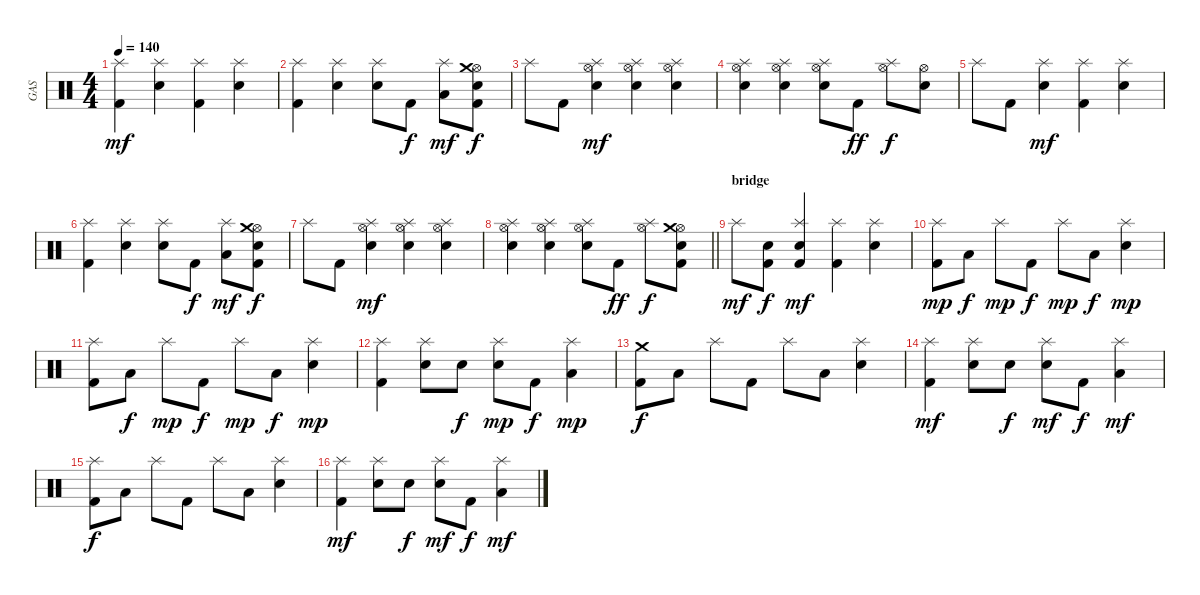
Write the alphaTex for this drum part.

\track ("GAS" "GAS") {instrument percussion}
\staff {score}
\articulation defaults
\ts (4 4)
\tempo 140
\clef neutral
\ks c
("Kick (hit) 2" "Splash (hit)").4{dy mf} ("Electric Snare (hit)" "Splash (hit)").4 ("Kick (hit) 2" "Splash (hit)").4 ("Electric Snare (hit)" "Splash (hit)").4 |
("Kick (hit) 2" "Splash (hit)").4 ("Electric Snare (hit)" "Splash (hit)").4 ("Electric Snare (hit)" "Splash (hit)").8 "Kick (hit) 2".8{dy f} ("Low Tom (hit)" "Splash (hit)").8{dy mf} ("Kick (hit) 2" "Electric Snare (hit)" "Hi-Hat (open)" "Crash medium (hit)").8{dy f} |
"Splash (hit)".8 "Kick (hit) 2".8 ("Electric Snare (hit)" "Hi-Hat (open)" "Splash (hit)").4{dy mf} ("Electric Snare (hit)" "Hi-Hat (open)" "Splash (hit)").4 ("Electric Snare (hit)" "Hi-Hat (open)" "Splash (hit)").4 |
("Electric Snare (hit)" "Hi-Hat (open)" "Splash (hit)").4 ("Electric Snare (hit)" "Hi-Hat (open)" "Splash (hit)").4 ("Electric Snare (hit)" "Hi-Hat (open)" "Splash (hit)").8 "Kick (hit) 2".8{dy ff} ("Hi-Hat (open)" "Splash (hit)").8{dy f} ("Electric Snare (hit)" "Hi-Hat (open)").8 |
"Splash (hit)".8 "Kick (hit) 2".8 ("Electric Snare (hit)" "Splash (hit)").4{dy mf} ("Kick (hit) 2" "Splash (hit)").4 ("Electric Snare (hit)" "Splash (hit)").4 |
("Kick (hit) 2" "Splash (hit)").4 ("Electric Snare (hit)" "Splash (hit)").4 ("Electric Snare (hit)" "Splash (hit)").8 "Kick (hit) 2".8{dy f} ("Low Tom (hit)" "Splash (hit)").8{dy mf} ("Kick (hit) 2" "Electric Snare (hit)" "Hi-Hat (open)" "Crash medium (hit)").8{dy f} |
"Splash (hit)".8 "Kick (hit) 2".8 ("Electric Snare (hit)" "Hi-Hat (open)" "Splash (hit)").4{dy mf} ("Electric Snare (hit)" "Hi-Hat (open)" "Splash (hit)").4 ("Electric Snare (hit)" "Hi-Hat (open)" "Splash (hit)").4 |
\barLineRight lightlight
("Electric Snare (hit)" "Hi-Hat (open)" "Splash (hit)").4 ("Electric Snare (hit)" "Hi-Hat (open)" "Splash (hit)").4 ("Electric Snare (hit)" "Hi-Hat (open)" "Splash (hit)").8 "Kick (hit) 2".8{dy ff} ("Hi-Hat (open)" "Splash (hit)").8{dy f} ("Kick (hit) 2" "Electric Snare (hit)" "Hi-Hat (open)" "Crash medium (hit)").8 |
\section ("" "bridge")
"Splash (hit)".8{dy mf} ("Kick (hit) 2" "Electric Snare (hit)").8{dy f} ("Kick (hit) 2" "Electric Snare (hit)" "Splash (hit)").4{dy mf} ("Kick (hit) 2" "Splash (hit)").4 ("Electric Snare (hit)" "Splash (hit)").4 |
("Kick (hit) 2" "Splash (hit)").8{dy mp} "Low Tom (hit)".8{dy f} "Splash (hit)".8{dy mp} "Kick (hit) 2".8{dy f} "Splash (hit)".8{dy mp} "Low Tom (hit)".8{dy f} ("Electric Snare (hit)" "Splash (hit)").4{dy mp} |
("Kick (hit) 2" "Splash (hit)").8 "Low Tom (hit)".8{dy f} "Splash (hit)".8{dy mp} "Kick (hit) 2".8{dy f} "Splash (hit)".8{dy mp} "Low Tom (hit)".8{dy f} ("Electric Snare (hit)" "Splash (hit)").4{dy mp} |
("Kick (hit) 2" "Splash (hit)").4 ("Electric Snare (hit)" "Splash (hit)").8 "Electric Snare (hit)".8{dy f} ("Electric Snare (hit)" "Splash (hit)").8{dy mp} "Kick (hit) 2".8{dy f} ("Low Tom (hit)" "Splash (hit)").4{dy mp} |
("Kick (hit) 2" "Crash medium (hit)").8{dy f} "Low Tom (hit)".8 "Splash (hit)".8 "Kick (hit) 2".8 "Splash (hit)".8 "Low Tom (hit)".8 ("Electric Snare (hit)" "Splash (hit)").4 |
("Kick (hit) 2" "Splash (hit)").4{dy mf} ("Electric Snare (hit)" "Splash (hit)").8 "Electric Snare (hit)".8{dy f} ("Electric Snare (hit)" "Splash (hit)").8{dy mf} "Kick (hit) 2".8{dy f} ("Low Tom (hit)" "Splash (hit)").4{dy mf} |
("Kick (hit) 2" "Splash (hit)").8{dy f} "Low Tom (hit)".8 "Splash (hit)".8 "Kick (hit) 2".8 "Splash (hit)".8 "Low Tom (hit)".8 ("Electric Snare (hit)" "Splash (hit)").4 |
("Kick (hit) 2" "Splash (hit)").4{dy mf} ("Electric Snare (hit)" "Splash (hit)").8 "Electric Snare (hit)".8{dy f} ("Electric Snare (hit)" "Splash (hit)").8{dy mf} "Kick (hit) 2".8{dy f} ("Low Tom (hit)" "Splash (hit)").4{dy mf}
